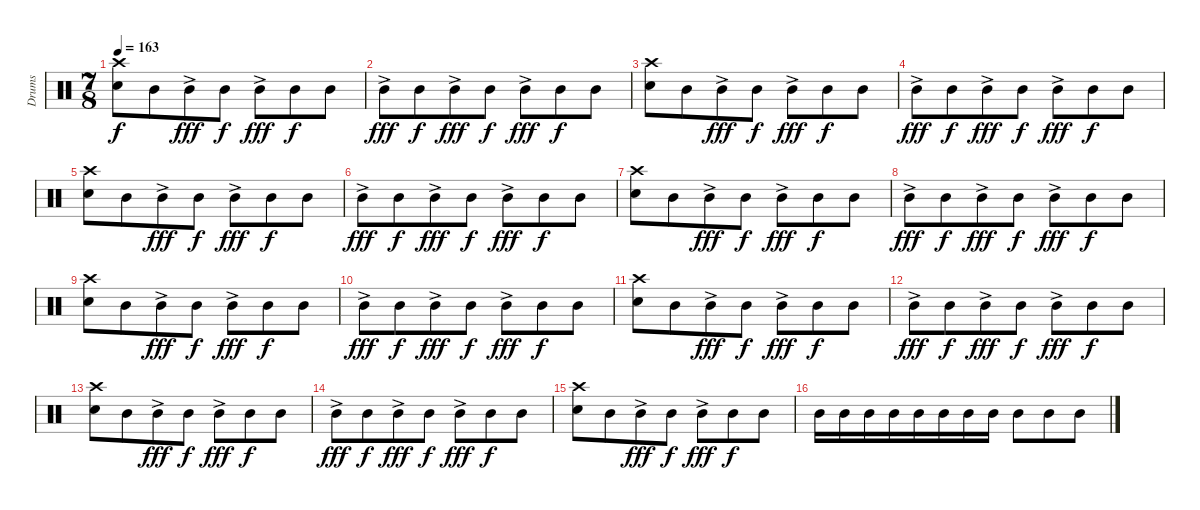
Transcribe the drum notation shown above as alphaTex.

\track ("Drums" "Drums") {instrument percussion}
\staff {score}
\articulation defaults
\ts (7 8)
\tempo 163
\clef neutral
\ks c
("Crash high (hit)" "Snare (hit) 2").8{dy f} "Mid Tom (hit)".8 "Mid Tom (hit)"{ac}.8{dy fff} "Mid Tom (hit)".8{dy f} "Mid Tom (hit)"{ac}.8{dy fff} "Mid Tom (hit)".8{dy f} "Mid Tom (hit)".8 |
"Mid Tom (hit)"{ac}.8{dy fff} "Mid Tom (hit)".8{dy f} "Mid Tom (hit)"{ac}.8{dy fff} "Mid Tom (hit)".8{dy f} "Mid Tom (hit)"{ac}.8{dy fff} "Mid Tom (hit)".8{dy f} "Mid Tom (hit)".8 |
("Crash high (hit)" "Snare (hit) 2").8 "Mid Tom (hit)".8 "Mid Tom (hit)"{ac}.8{dy fff} "Mid Tom (hit)".8{dy f} "Mid Tom (hit)"{ac}.8{dy fff} "Mid Tom (hit)".8{dy f} "Mid Tom (hit)".8 |
"Mid Tom (hit)"{ac}.8{dy fff} "Mid Tom (hit)".8{dy f} "Mid Tom (hit)"{ac}.8{dy fff} "Mid Tom (hit)".8{dy f} "Mid Tom (hit)"{ac}.8{dy fff} "Mid Tom (hit)".8{dy f} "Mid Tom (hit)".8 |
("Crash high (hit)" "Snare (hit) 2").8 "Mid Tom (hit)".8 "Mid Tom (hit)"{ac}.8{dy fff} "Mid Tom (hit)".8{dy f} "Mid Tom (hit)"{ac}.8{dy fff} "Mid Tom (hit)".8{dy f} "Mid Tom (hit)".8 |
"Mid Tom (hit)"{ac}.8{dy fff} "Mid Tom (hit)".8{dy f} "Mid Tom (hit)"{ac}.8{dy fff} "Mid Tom (hit)".8{dy f} "Mid Tom (hit)"{ac}.8{dy fff} "Mid Tom (hit)".8{dy f} "Mid Tom (hit)".8 |
("Crash high (hit)" "Snare (hit) 2").8 "Mid Tom (hit)".8 "Mid Tom (hit)"{ac}.8{dy fff} "Mid Tom (hit)".8{dy f} "Mid Tom (hit)"{ac}.8{dy fff} "Mid Tom (hit)".8{dy f} "Mid Tom (hit)".8 |
"Mid Tom (hit)"{ac}.8{dy fff} "Mid Tom (hit)".8{dy f} "Mid Tom (hit)"{ac}.8{dy fff} "Mid Tom (hit)".8{dy f} "Mid Tom (hit)"{ac}.8{dy fff} "Mid Tom (hit)".8{dy f} "Mid Tom (hit)".8 |
("Crash high (hit)" "Snare (hit) 2").8 "Mid Tom (hit)".8 "Mid Tom (hit)"{ac}.8{dy fff} "Mid Tom (hit)".8{dy f} "Mid Tom (hit)"{ac}.8{dy fff} "Mid Tom (hit)".8{dy f} "Mid Tom (hit)".8 |
"Mid Tom (hit)"{ac}.8{dy fff} "Mid Tom (hit)".8{dy f} "Mid Tom (hit)"{ac}.8{dy fff} "Mid Tom (hit)".8{dy f} "Mid Tom (hit)"{ac}.8{dy fff} "Mid Tom (hit)".8{dy f} "Mid Tom (hit)".8 |
("Crash high (hit)" "Snare (hit) 2").8 "Mid Tom (hit)".8 "Mid Tom (hit)"{ac}.8{dy fff} "Mid Tom (hit)".8{dy f} "Mid Tom (hit)"{ac}.8{dy fff} "Mid Tom (hit)".8{dy f} "Mid Tom (hit)".8 |
"Mid Tom (hit)"{ac}.8{dy fff} "Mid Tom (hit)".8{dy f} "Mid Tom (hit)"{ac}.8{dy fff} "Mid Tom (hit)".8{dy f} "Mid Tom (hit)"{ac}.8{dy fff} "Mid Tom (hit)".8{dy f} "Mid Tom (hit)".8 |
("Crash high (hit)" "Snare (hit) 2").8 "Mid Tom (hit)".8 "Mid Tom (hit)"{ac}.8{dy fff} "Mid Tom (hit)".8{dy f} "Mid Tom (hit)"{ac}.8{dy fff} "Mid Tom (hit)".8{dy f} "Mid Tom (hit)".8 |
"Mid Tom (hit)"{ac}.8{dy fff} "Mid Tom (hit)".8{dy f} "Mid Tom (hit)"{ac}.8{dy fff} "Mid Tom (hit)".8{dy f} "Mid Tom (hit)"{ac}.8{dy fff} "Mid Tom (hit)".8{dy f} "Mid Tom (hit)".8 |
("Crash high (hit)" "Snare (hit) 2").8 "Mid Tom (hit)".8 "Mid Tom (hit)"{ac}.8{dy fff} "Mid Tom (hit)".8{dy f} "Mid Tom (hit)"{ac}.8{dy fff} "Mid Tom (hit)".8{dy f} "Mid Tom (hit)".8 |
"Mid Tom (hit)".16 "Mid Tom (hit)".16 "Mid Tom (hit)".16 "Mid Tom (hit)".16 "Mid Tom (hit)".16 "Mid Tom (hit)".16 "Mid Tom (hit)".16 "Mid Tom (hit)".16 "Mid Tom (hit)".8 "Mid Tom (hit)".8 "Mid Tom (hit)".8
